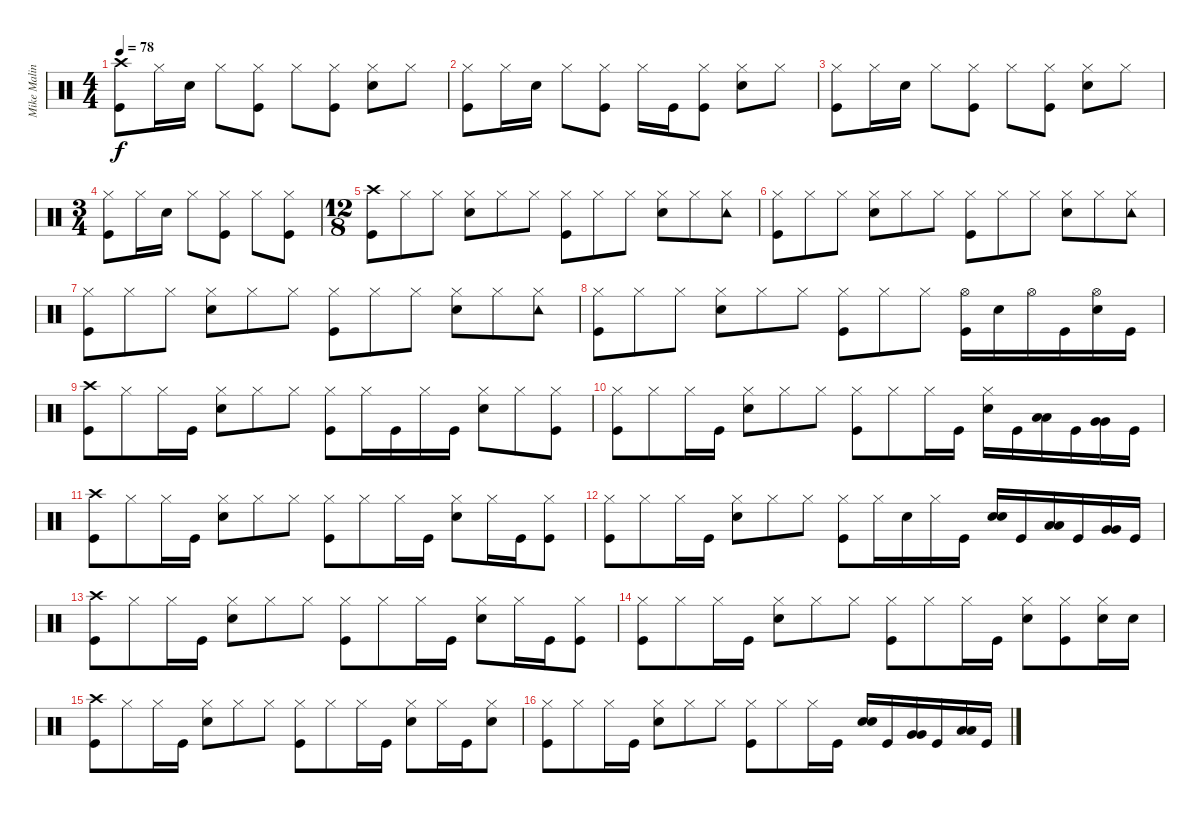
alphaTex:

\track ("Mike Malinin (Drums)" "Mike Malin") {instrument percussion}
\staff {score}
\articulation defaults
\ts (4 4)
\tempo 78
\clef neutral
\ks c
("Crash high (hit)" "Kick (hit)").8{dy f} "Hi-Hat (closed)".16 "Snare (hit) 2".16 "Hi-Hat (closed)".8 ("Hi-Hat (closed)" "Kick (hit)").8 "Hi-Hat (closed)".8 ("Hi-Hat (closed)" "Kick (hit)").8 ("Hi-Hat (closed)" "Snare (hit) 2").8 "Hi-Hat (closed)".8 |
("Hi-Hat (closed)" "Kick (hit)").8 "Hi-Hat (closed)".16 "Snare (hit) 2".16 "Hi-Hat (closed)".8 ("Hi-Hat (closed)" "Kick (hit)").8 "Hi-Hat (closed)".16 "Kick (hit)".16 ("Hi-Hat (closed)" "Kick (hit)").8 ("Hi-Hat (closed)" "Snare (hit) 2").8 "Hi-Hat (closed)".8 |
("Hi-Hat (closed)" "Kick (hit)").8 "Hi-Hat (closed)".16 "Snare (hit) 2".16 "Hi-Hat (closed)".8 ("Hi-Hat (closed)" "Kick (hit)").8 "Hi-Hat (closed)".8 ("Hi-Hat (closed)" "Kick (hit)").8 ("Hi-Hat (closed)" "Snare (hit) 2").8 "Hi-Hat (closed)".8 |
\ts (3 4)
("Hi-Hat (closed)" "Kick (hit)").8 "Hi-Hat (closed)".16 "Snare (hit) 2".16 "Hi-Hat (closed)".8 ("Hi-Hat (closed)" "Kick (hit)").8 "Hi-Hat (closed)".8 ("Hi-Hat (closed)" "Kick (hit)").8 |
\ts (12 8)
("Crash high (hit)" "Kick (hit)").8 "Hi-Hat (closed)".8 "Hi-Hat (closed)".8 ("Hi-Hat (closed)" "Snare (hit) 2").8 "Hi-Hat (closed)".8 "Hi-Hat (closed)".8 ("Hi-Hat (closed)" "Kick (hit)").8 "Hi-Hat (closed)".8 "Hi-Hat (closed)".8 ("Hi-Hat (closed)" "Snare (hit) 2").8 "Hi-Hat (closed)".8 ("Tambourine (hit)" "Hi-Hat (closed)").8 |
("Hi-Hat (closed)" "Kick (hit)").8 "Hi-Hat (closed)".8 "Hi-Hat (closed)".8 ("Hi-Hat (closed)" "Snare (hit) 2").8 "Hi-Hat (closed)".8 "Hi-Hat (closed)".8 ("Hi-Hat (closed)" "Kick (hit)").8 "Hi-Hat (closed)".8 "Hi-Hat (closed)".8 ("Hi-Hat (closed)" "Snare (hit) 2").8 "Hi-Hat (closed)".8 ("Tambourine (hit)" "Hi-Hat (closed)").8 |
("Hi-Hat (closed)" "Kick (hit)").8 "Hi-Hat (closed)".8 "Hi-Hat (closed)".8 ("Hi-Hat (closed)" "Snare (hit) 2").8 "Hi-Hat (closed)".8 "Hi-Hat (closed)".8 ("Hi-Hat (closed)" "Kick (hit)").8 "Hi-Hat (closed)".8 "Hi-Hat (closed)".8 ("Hi-Hat (closed)" "Snare (hit) 2").8 "Hi-Hat (closed)".8 ("Tambourine (hit)" "Hi-Hat (closed)").8 |
("Hi-Hat (closed)" "Kick (hit)").8 "Hi-Hat (closed)".8 "Hi-Hat (closed)".8 ("Hi-Hat (closed)" "Snare (hit) 2").8 "Hi-Hat (closed)".8 "Hi-Hat (closed)".8 ("Hi-Hat (closed)" "Kick (hit)").8 "Hi-Hat (closed)".8 "Hi-Hat (closed)".8 ("Hi-Hat (open)" "Kick (hit)").16 "Snare (hit) 2".16 "Hi-Hat (open)".16 "Kick (hit)".16 ("Hi-Hat (open)" "Snare (hit) 2").16 "Kick (hit)".16 |
("Crash high (hit)" "Kick (hit)").8 "Hi-Hat (closed)".8 "Hi-Hat (closed)".16 "Kick (hit)".16 ("Hi-Hat (closed)" "Snare (hit) 2").8 "Hi-Hat (closed)".8 "Hi-Hat (closed)".8 ("Hi-Hat (closed)" "Kick (hit)").8 "Hi-Hat (closed)".16 "Kick (hit)".16 "Hi-Hat (closed)".16 "Kick (hit)".16 ("Hi-Hat (closed)" "Snare (hit) 2").8 "Hi-Hat (closed)".8 ("Hi-Hat (closed)" "Kick (hit)").8 |
("Hi-Hat (closed)" "Kick (hit)").8 "Hi-Hat (closed)".8 "Hi-Hat (closed)".16 "Kick (hit)".16 ("Hi-Hat (closed)" "Snare (hit) 2").8 "Hi-Hat (closed)".8 "Hi-Hat (closed)".8 ("Hi-Hat (closed)" "Kick (hit)").8 "Hi-Hat (closed)".8 "Hi-Hat (closed)".16 "Kick (hit)".16 ("Hi-Hat (closed)" "Snare (hit) 2").16 "Kick (hit)".16 ("Low Tom (hit)" "Low Tom (hit)").16 "Kick (hit)".16 ("Very Low Tom (hit)" "Very Low Tom (hit)").16 "Kick (hit)".16 |
("Crash high (hit)" "Kick (hit)").8 "Hi-Hat (closed)".8 "Hi-Hat (closed)".16 "Kick (hit)".16 ("Hi-Hat (closed)" "Snare (hit) 2").8 "Hi-Hat (closed)".8 "Hi-Hat (closed)".8 ("Hi-Hat (closed)" "Kick (hit)").8 "Hi-Hat (closed)".8 "Hi-Hat (closed)".16 "Kick (hit)".16 ("Hi-Hat (closed)" "Snare (hit) 2").8 "Hi-Hat (closed)".16 "Kick (hit)".16 ("Hi-Hat (closed)" "Kick (hit)").8 |
("Hi-Hat (closed)" "Kick (hit)").8 "Hi-Hat (closed)".8 "Hi-Hat (closed)".16 "Kick (hit)".16 ("Hi-Hat (closed)" "Snare (hit) 2").8 "Hi-Hat (closed)".8 "Hi-Hat (closed)".8 ("Hi-Hat (closed)" "Kick (hit)").8 "Hi-Hat (closed)".16 "Snare (hit) 2".16 "Hi-Hat (closed)".16 "Kick (hit)".16 ("Snare (hit) 2" "Snare (hit) 2").16 "Kick (hit)".16 ("Low Tom (hit)" "Low Tom (hit)").16 "Kick (hit)".16 ("Very Low Tom (hit)" "Very Low Tom (hit)").16 "Kick (hit)".16 |
("Crash high (hit)" "Kick (hit)").8 "Hi-Hat (closed)".8 "Hi-Hat (closed)".16 "Kick (hit)".16 ("Hi-Hat (closed)" "Snare (hit) 2").8 "Hi-Hat (closed)".8 "Hi-Hat (closed)".8 ("Hi-Hat (closed)" "Kick (hit)").8 "Hi-Hat (closed)".8 "Hi-Hat (closed)".16 "Kick (hit)".16 ("Hi-Hat (closed)" "Snare (hit) 2").8 "Hi-Hat (closed)".16 "Kick (hit)".16 ("Hi-Hat (closed)" "Kick (hit)").8 |
("Hi-Hat (closed)" "Kick (hit)").8 "Hi-Hat (closed)".8 "Hi-Hat (closed)".16 "Kick (hit)".16 ("Hi-Hat (closed)" "Snare (hit) 2").8 "Hi-Hat (closed)".8 "Hi-Hat (closed)".8 ("Hi-Hat (closed)" "Kick (hit)").8 "Hi-Hat (closed)".8 "Hi-Hat (closed)".16 "Kick (hit)".16 ("Hi-Hat (closed)" "Snare (hit) 2").8 ("Hi-Hat (closed)" "Kick (hit)").8 ("Hi-Hat (closed)" "Snare (hit) 2").16 "Snare (hit) 2".16 |
("Crash high (hit)" "Kick (hit)").8 "Hi-Hat (closed)".8 "Hi-Hat (closed)".16 "Kick (hit)".16 ("Hi-Hat (closed)" "Snare (hit) 2").8 "Hi-Hat (closed)".8 "Hi-Hat (closed)".8 ("Hi-Hat (closed)" "Kick (hit)").8 "Hi-Hat (closed)".8 "Hi-Hat (closed)".16 "Kick (hit)".16 ("Hi-Hat (closed)" "Snare (hit) 2").8 "Hi-Hat (closed)".16 "Kick (hit)".16 ("Hi-Hat (closed)" "Snare (hit) 2").8 |
("Hi-Hat (closed)" "Kick (hit)").8 "Hi-Hat (closed)".8 "Hi-Hat (closed)".16 "Kick (hit)".16 ("Hi-Hat (closed)" "Snare (hit) 2").8 "Hi-Hat (closed)".8 "Hi-Hat (closed)".8 ("Hi-Hat (closed)" "Kick (hit)").8 "Hi-Hat (closed)".8 "Hi-Hat (closed)".16 "Kick (hit)".16 ("Snare (hit) 2" "Snare (hit) 2").16 "Kick (hit)".16 ("Very Low Tom (hit)" "Very Low Tom (hit)").16 "Kick (hit)".16 ("Low Floor Tom (hit)" "Low Floor Tom (hit)").16 "Kick (hit)".16
